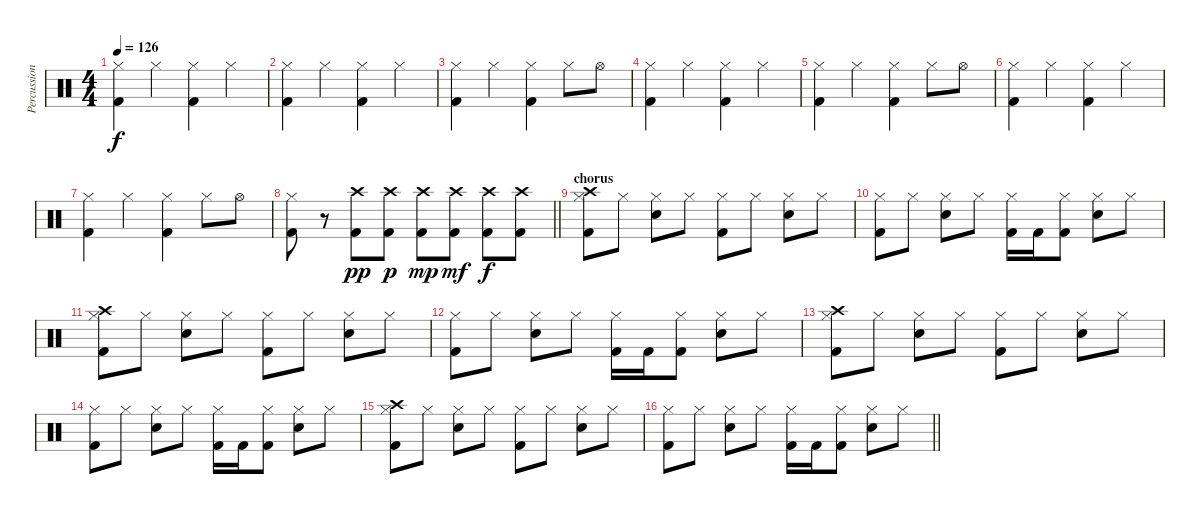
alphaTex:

\track ("Percussion" "Percussion") {instrument percussion}
\staff {score}
\articulation defaults
\ts (4 4)
\tempo 126
\clef neutral
\ks c
("Hi-Hat (closed)" "Kick (hit) 2").4{dy f} "Hi-Hat (closed)".4 ("Hi-Hat (closed)" "Kick (hit) 2").4 "Hi-Hat (closed)".4 |
("Hi-Hat (closed)" "Kick (hit) 2").4 "Hi-Hat (closed)".4 ("Hi-Hat (closed)" "Kick (hit) 2").4 "Hi-Hat (closed)".4 |
("Hi-Hat (closed)" "Kick (hit) 2").4 "Hi-Hat (closed)".4 ("Hi-Hat (closed)" "Kick (hit) 2").4 "Hi-Hat (closed)".8 "Hi-Hat (open)".8 |
("Hi-Hat (closed)" "Kick (hit) 2").4 "Hi-Hat (closed)".4 ("Hi-Hat (closed)" "Kick (hit) 2").4 "Hi-Hat (closed)".4 |
("Hi-Hat (closed)" "Kick (hit) 2").4 "Hi-Hat (closed)".4 ("Hi-Hat (closed)" "Kick (hit) 2").4 "Hi-Hat (closed)".8 "Hi-Hat (open)".8 |
("Hi-Hat (closed)" "Kick (hit) 2").4 "Hi-Hat (closed)".4 ("Hi-Hat (closed)" "Kick (hit) 2").4 "Hi-Hat (closed)".4 |
("Hi-Hat (closed)" "Kick (hit) 2").4 "Hi-Hat (closed)".4 ("Hi-Hat (closed)" "Kick (hit) 2").4 "Hi-Hat (closed)".8 "Hi-Hat (open)".8 |
\barLineRight lightlight
("Hi-Hat (closed)" "Kick (hit) 2").8 r.8 ("Kick (hit) 2" "Crash high (hit)").8{dy pp} ("Kick (hit) 2" "Crash high (hit)").8{dy p} ("Kick (hit) 2" "Crash high (hit)").8{dy mp} ("Kick (hit) 2" "Crash high (hit)").8{dy mf} ("Kick (hit) 2" "Crash high (hit)").8{dy f} ("Kick (hit) 2" "Crash high (hit)").8 |
\section ("" "chorus")
("Hi-Hat (closed)" "Crash high (hit)" "Kick (hit) 2").8 "Hi-Hat (closed)".8 ("Hi-Hat (closed)" "Electric Snare (hit)").8 "Hi-Hat (closed)".8 ("Hi-Hat (closed)" "Kick (hit) 2").8 "Hi-Hat (closed)".8 ("Hi-Hat (closed)" "Electric Snare (hit)").8 "Hi-Hat (closed)".8 |
("Hi-Hat (closed)" "Kick (hit) 2").8 "Hi-Hat (closed)".8 ("Hi-Hat (closed)" "Electric Snare (hit)").8 "Hi-Hat (closed)".8 ("Hi-Hat (closed)" "Kick (hit) 2").16 "Kick (hit) 2".16 ("Hi-Hat (closed)" "Kick (hit) 2").8 ("Hi-Hat (closed)" "Electric Snare (hit)").8 "Hi-Hat (closed)".8 |
("Hi-Hat (closed)" "Crash high (hit)" "Kick (hit) 2").8 "Hi-Hat (closed)".8 ("Hi-Hat (closed)" "Electric Snare (hit)").8 "Hi-Hat (closed)".8 ("Hi-Hat (closed)" "Kick (hit) 2").8 "Hi-Hat (closed)".8 ("Hi-Hat (closed)" "Electric Snare (hit)").8 "Hi-Hat (closed)".8 |
("Hi-Hat (closed)" "Kick (hit) 2").8 "Hi-Hat (closed)".8 ("Hi-Hat (closed)" "Electric Snare (hit)").8 "Hi-Hat (closed)".8 ("Hi-Hat (closed)" "Kick (hit) 2").16 "Kick (hit) 2".16 ("Hi-Hat (closed)" "Kick (hit) 2").8 ("Hi-Hat (closed)" "Electric Snare (hit)").8 "Hi-Hat (closed)".8 |
("Hi-Hat (closed)" "Crash high (hit)" "Kick (hit) 2").8 "Hi-Hat (closed)".8 ("Hi-Hat (closed)" "Electric Snare (hit)").8 "Hi-Hat (closed)".8 ("Hi-Hat (closed)" "Kick (hit) 2").8 "Hi-Hat (closed)".8 ("Hi-Hat (closed)" "Electric Snare (hit)").8 "Hi-Hat (closed)".8 |
("Hi-Hat (closed)" "Kick (hit) 2").8 "Hi-Hat (closed)".8 ("Hi-Hat (closed)" "Electric Snare (hit)").8 "Hi-Hat (closed)".8 ("Hi-Hat (closed)" "Kick (hit) 2").16 "Kick (hit) 2".16 ("Hi-Hat (closed)" "Kick (hit) 2").8 ("Hi-Hat (closed)" "Electric Snare (hit)").8 "Hi-Hat (closed)".8 |
("Hi-Hat (closed)" "Crash high (hit)" "Kick (hit) 2").8 "Hi-Hat (closed)".8 ("Hi-Hat (closed)" "Electric Snare (hit)").8 "Hi-Hat (closed)".8 ("Hi-Hat (closed)" "Kick (hit) 2").8 "Hi-Hat (closed)".8 ("Hi-Hat (closed)" "Electric Snare (hit)").8 "Hi-Hat (closed)".8 |
\barLineRight lightlight
("Hi-Hat (closed)" "Kick (hit) 2").8 "Hi-Hat (closed)".8 ("Hi-Hat (closed)" "Electric Snare (hit)").8 "Hi-Hat (closed)".8 ("Hi-Hat (closed)" "Kick (hit) 2").16 "Kick (hit) 2".16 ("Hi-Hat (closed)" "Kick (hit) 2").8 ("Hi-Hat (closed)" "Electric Snare (hit)").8 "Hi-Hat (closed)".8
